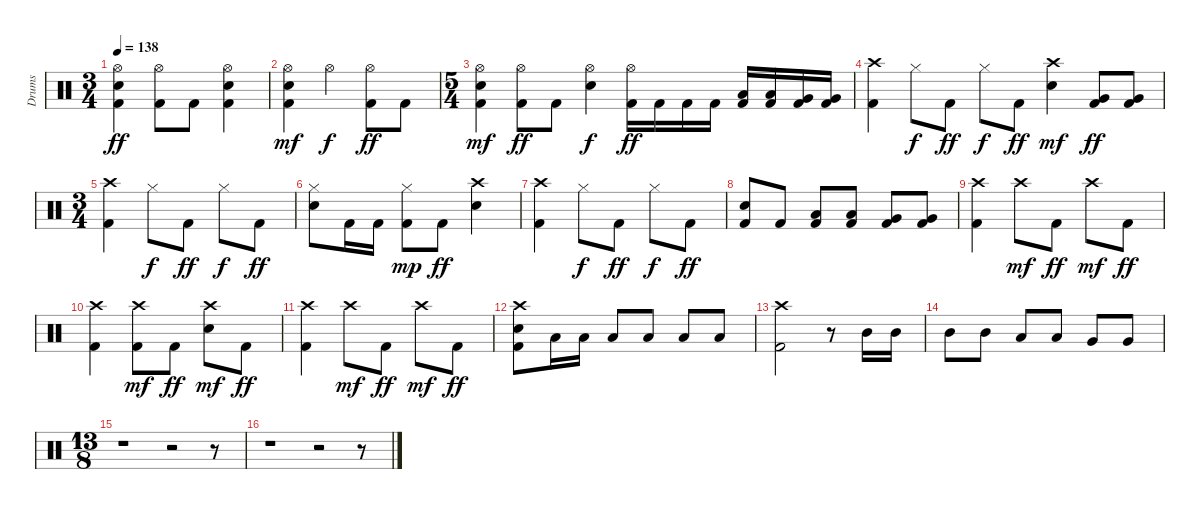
\track ("Drums" "Drums") {instrument percussion}
\staff {score}
\articulation defaults
\ts (3 4)
\tempo 138
\clef neutral
\ks c
("Kick (hit) 2" "Electric Snare (hit)" "Hi-Hat (open)").4{dy ff} ("Kick (hit) 2" "Hi-Hat (open)").8 "Kick (hit) 2".8 ("Kick (hit) 2" "Electric Snare (hit)" "Hi-Hat (open)").4 |
("Kick (hit) 2" "Electric Snare (hit)" "Hi-Hat (open)").4{dy mf} "Hi-Hat (open)".4{dy f} ("Kick (hit) 2" "Hi-Hat (open)").8{dy ff} "Kick (hit) 2".8 |
\ts (5 4)
("Kick (hit) 2" "Electric Snare (hit)" "Hi-Hat (open)").4{dy mf} ("Kick (hit) 2" "Hi-Hat (open)").8{dy ff} "Kick (hit) 2".8 ("Electric Snare (hit)" "Hi-Hat (open)").4{dy f} ("Kick (hit) 2" "Hi-Hat (open)").16{dy ff} "Kick (hit) 2".16 "Kick (hit) 2".16 "Kick (hit) 2".16 ("Kick (hit) 2" "Low Tom (hit)").16 ("Kick (hit) 2" "Low Tom (hit)").16 ("Kick (hit) 2" "Very Low Tom (hit)").16 ("Kick (hit) 2" "Very Low Tom (hit)").16 |
("Kick (hit) 2" "Crash high (hit)").4 "Hi-Hat (closed)".8{dy f} "Kick (hit) 2".8{dy ff} "Hi-Hat (closed)".8{dy f} "Kick (hit) 2".8{dy ff} ("Electric Snare (hit)" "Crash high (hit)").4{dy mf} ("Kick (hit) 2" "Very Low Tom (hit)").8{dy ff} ("Kick (hit) 2" "Very Low Tom (hit)").8 |
\ts (3 4)
("Kick (hit) 2" "Crash high (hit)").4 "Hi-Hat (closed)".8{dy f} "Kick (hit) 2".8{dy ff} "Hi-Hat (closed)".8{dy f} "Kick (hit) 2".8{dy ff} |
("Electric Snare (hit)" "Hi-Hat (closed)").8 "Kick (hit) 2".16 "Kick (hit) 2".16 ("Kick (hit) 2" "Hi-Hat (closed)").8{dy mp} "Kick (hit) 2".8{dy ff} ("Electric Snare (hit)" "Crash high (hit)").4 |
("Kick (hit) 2" "Crash high (hit)").4 "Hi-Hat (closed)".8{dy f} "Kick (hit) 2".8{dy ff} "Hi-Hat (closed)".8{dy f} "Kick (hit) 2".8{dy ff} |
("Kick (hit) 2" "Electric Snare (hit)").8 "Kick (hit) 2".8 ("Kick (hit) 2" "Low Tom (hit)").8 ("Kick (hit) 2" "Low Tom (hit)").8 ("Kick (hit) 2" "Very Low Tom (hit)").8 ("Kick (hit) 2" "Very Low Tom (hit)").8 |
("Kick (hit) 2" "Crash high (hit)").4 "Crash high (hit)".8{dy mf} "Kick (hit) 2".8{dy ff} "Crash high (hit)".8{dy mf} "Kick (hit) 2".8{dy ff} |
("Kick (hit) 2" "Crash high (hit)").4 ("Kick (hit) 2" "Crash high (hit)").8{dy mf} "Kick (hit) 2".8{dy ff} ("Electric Snare (hit)" "Crash high (hit)").8{dy mf} "Kick (hit) 2".8{dy ff} |
("Kick (hit) 2" "Crash high (hit)").4 "Crash high (hit)".8{dy mf} "Kick (hit) 2".8{dy ff} "Crash high (hit)".8{dy mf} "Kick (hit) 2".8{dy ff} |
("Kick (hit) 2" "Electric Snare (hit)" "Crash high (hit)").8 "Low Tom (hit)".16 "Low Tom (hit)".16 "Low Tom (hit)".8 "Low Tom (hit)".8 "Low Tom (hit)".8 "Low Tom (hit)".8 |
("Kick (hit) 2" "Crash high (hit)").2 r.8 "Mid Tom (hit)".16 "Mid Tom (hit)".16 |
"Mid Tom (hit)".8 "Mid Tom (hit)".8 "Low Tom (hit)".8 "Low Tom (hit)".8 "Very Low Tom (hit)".8 "Very Low Tom (hit)".8 |
\ts (13 8)
r.1 r.2 r.8 |
r.1 r.2 r.8
